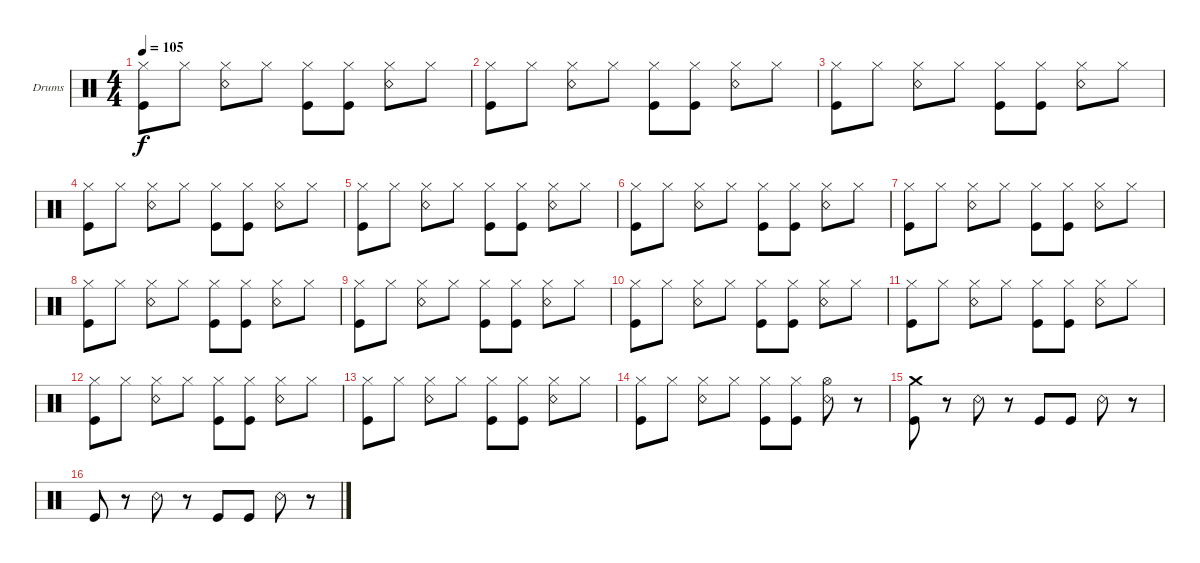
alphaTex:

\defaultSystemsLayout 4
\bracketExtendMode groupsimilarinstruments
\firstSystemTrackNameOrientation horizontal
\otherSystemsTrackNameOrientation horizontal
\track ("Drumkit" "Drums") {instrument percussion}
\staff {score}
\articulation defaults
\ts (4 4)
\tempo 105
\clef neutral
\scale
0.333333
\ks c
("Hi-Hat (closed)" "Kick (hit)").8{dy f} "Hi-Hat (closed)".8 ("Hi-Hat (closed)" "Snare (rim shot)").8 "Hi-Hat (closed)".8 ("Hi-Hat (closed)" "Kick (hit)").8 ("Hi-Hat (closed)" "Kick (hit)").8 ("Hi-Hat (closed)" "Snare (rim shot)").8 "Hi-Hat (closed)".8 |
\scale
0.333333 ("Hi-Hat (closed)" "Kick (hit)").8 "Hi-Hat (closed)".8 ("Hi-Hat (closed)" "Snare (rim shot)").8 "Hi-Hat (closed)".8 ("Hi-Hat (closed)" "Kick (hit)").8 ("Hi-Hat (closed)" "Kick (hit)").8 ("Hi-Hat (closed)" "Snare (rim shot)").8 "Hi-Hat (closed)".8 |
\scale
0.333333 ("Hi-Hat (closed)" "Kick (hit)").8 "Hi-Hat (closed)".8 ("Hi-Hat (closed)" "Snare (rim shot)").8 "Hi-Hat (closed)".8 ("Hi-Hat (closed)" "Kick (hit)").8 ("Hi-Hat (closed)" "Kick (hit)").8 ("Hi-Hat (closed)" "Snare (rim shot)").8 "Hi-Hat (closed)".8 |
\scale
0.333333 ("Hi-Hat (closed)" "Kick (hit)").8 "Hi-Hat (closed)".8 ("Hi-Hat (closed)" "Snare (rim shot)").8 "Hi-Hat (closed)".8 ("Hi-Hat (closed)" "Kick (hit)").8 ("Hi-Hat (closed)" "Kick (hit)").8 ("Hi-Hat (closed)" "Snare (rim shot)").8 "Hi-Hat (closed)".8 |
\scale
0.333333 ("Hi-Hat (closed)" "Kick (hit)").8 "Hi-Hat (closed)".8 ("Hi-Hat (closed)" "Snare (rim shot)").8 "Hi-Hat (closed)".8 ("Hi-Hat (closed)" "Kick (hit)").8 ("Hi-Hat (closed)" "Kick (hit)").8 ("Hi-Hat (closed)" "Snare (rim shot)").8 "Hi-Hat (closed)".8 |
\scale
0.333333 ("Hi-Hat (closed)" "Kick (hit)").8 "Hi-Hat (closed)".8 ("Hi-Hat (closed)" "Snare (rim shot)").8 "Hi-Hat (closed)".8 ("Hi-Hat (closed)" "Kick (hit)").8 ("Hi-Hat (closed)" "Kick (hit)").8 ("Hi-Hat (closed)" "Snare (rim shot)").8 "Hi-Hat (closed)".8 |
\scale
0.333333 ("Hi-Hat (closed)" "Kick (hit)").8 "Hi-Hat (closed)".8 ("Hi-Hat (closed)" "Snare (rim shot)").8 "Hi-Hat (closed)".8 ("Hi-Hat (closed)" "Kick (hit)").8 ("Hi-Hat (closed)" "Kick (hit)").8 ("Hi-Hat (closed)" "Snare (rim shot)").8 "Hi-Hat (closed)".8 |
\scale
0.333333 ("Hi-Hat (closed)" "Kick (hit)").8 "Hi-Hat (closed)".8 ("Hi-Hat (closed)" "Snare (rim shot)").8 "Hi-Hat (closed)".8 ("Hi-Hat (closed)" "Kick (hit)").8 ("Hi-Hat (closed)" "Kick (hit)").8 ("Hi-Hat (closed)" "Snare (rim shot)").8 "Hi-Hat (closed)".8 |
\scale
0.333333 ("Hi-Hat (closed)" "Kick (hit)").8 "Hi-Hat (closed)".8 ("Hi-Hat (closed)" "Snare (rim shot)").8 "Hi-Hat (closed)".8 ("Hi-Hat (closed)" "Kick (hit)").8 ("Hi-Hat (closed)" "Kick (hit)").8 ("Hi-Hat (closed)" "Snare (rim shot)").8 "Hi-Hat (closed)".8 |
\scale
0.333333 ("Hi-Hat (closed)" "Kick (hit)").8 "Hi-Hat (closed)".8 ("Hi-Hat (closed)" "Snare (rim shot)").8 "Hi-Hat (closed)".8 ("Hi-Hat (closed)" "Kick (hit)").8 ("Hi-Hat (closed)" "Kick (hit)").8 ("Hi-Hat (closed)" "Snare (rim shot)").8 "Hi-Hat (closed)".8 |
\scale
0.333333 ("Hi-Hat (closed)" "Kick (hit)").8 "Hi-Hat (closed)".8 ("Hi-Hat (closed)" "Snare (rim shot)").8 "Hi-Hat (closed)".8 ("Hi-Hat (closed)" "Kick (hit)").8 ("Hi-Hat (closed)" "Kick (hit)").8 ("Hi-Hat (closed)" "Snare (rim shot)").8 "Hi-Hat (closed)".8 |
\scale
0.333333 ("Hi-Hat (closed)" "Kick (hit)").8 "Hi-Hat (closed)".8 ("Hi-Hat (closed)" "Snare (rim shot)").8 "Hi-Hat (closed)".8 ("Hi-Hat (closed)" "Kick (hit)").8 ("Hi-Hat (closed)" "Kick (hit)").8 ("Hi-Hat (closed)" "Snare (rim shot)").8 "Hi-Hat (closed)".8 |
\scale
0.333333 ("Hi-Hat (closed)" "Kick (hit)").8 "Hi-Hat (closed)".8 ("Hi-Hat (closed)" "Snare (rim shot)").8 "Hi-Hat (closed)".8 ("Hi-Hat (closed)" "Kick (hit)").8 ("Hi-Hat (closed)" "Kick (hit)").8 ("Hi-Hat (closed)" "Snare (rim shot)").8 "Hi-Hat (closed)".8 |
\scale
0.333333 ("Hi-Hat (closed)" "Kick (hit)").8 "Hi-Hat (closed)".8 ("Hi-Hat (closed)" "Snare (rim shot)").8 "Hi-Hat (closed)".8 ("Hi-Hat (closed)" "Kick (hit)").8 ("Hi-Hat (closed)" "Kick (hit)").8 ("Hi-Hat (open)" "Snare (rim shot)").8 r.8 |
("Kick (hit)" "Crash medium (hit)").8 r.8 "Snare (rim shot)".8 r.8 "Kick (hit)".8 "Kick (hit)".8 "Snare (rim shot)".8 r.8 |
"Kick (hit)".8 r.8 "Snare (rim shot)".8 r.8 "Kick (hit)".8 "Kick (hit)".8 "Snare (rim shot)".8 r.8
